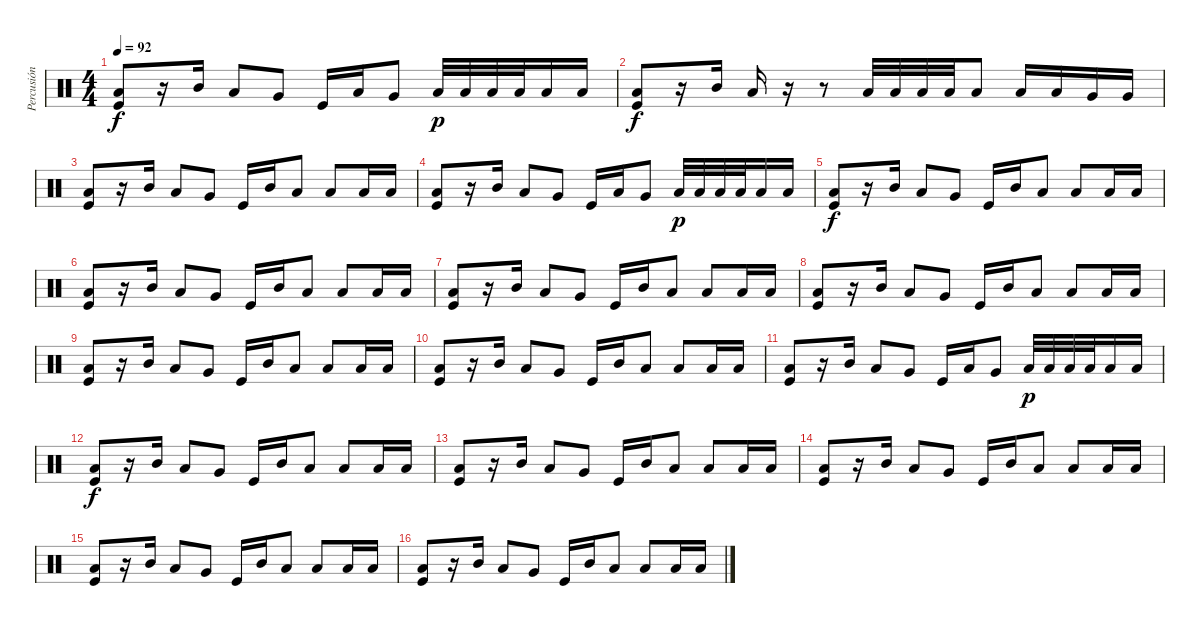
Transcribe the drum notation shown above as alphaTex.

\track ("Percusión" "Percusión") {instrument percussion}
\staff {score}
\articulation defaults
\ts (4 4)
\tempo 92
\clef neutral
\ks c
("Low Tom (hit)" "Kick (hit)").8{dy f} r.16 "Mid Tom (hit)".16 "Low Tom (hit)".8 "Very Low Tom (hit)".8 "Kick (hit)".16 "Low Tom (hit)".16 "Very Low Tom (hit)".8 "Low Floor Tom (hit)".32{dy p} "Low Floor Tom (hit)".32 "Low Floor Tom (hit)".32 "Low Floor Tom (hit)".32 "Low Floor Tom (hit)".16 "Low Floor Tom (hit)".16 |
("Low Tom (hit)" "Kick (hit)").8{dy f} r.16 "Mid Tom (hit)".16 "Low Tom (hit)".16 r.16 r.8 "Low Floor Tom (hit)".32 "Low Floor Tom (hit)".32 "Low Floor Tom (hit)".32 "Low Floor Tom (hit)".32 "Low Floor Tom (hit)".8 "Low Tom (hit)".16 "Low Tom (hit)".16 "Very Low Tom (hit)".16 "Very Low Tom (hit)".16 |
("Low Tom (hit)" "Kick (hit)").8 r.16 "Mid Tom (hit)".16 "Low Tom (hit)".8 "Very Low Tom (hit)".8 "Kick (hit)".16 "Mid Tom (hit)".16 "Low Tom (hit)".8 "Low Floor Tom (hit)".8 "Low Floor Tom (hit)".16 "Low Floor Tom (hit)".16 |
("Low Tom (hit)" "Kick (hit)").8 r.16 "Mid Tom (hit)".16 "Low Tom (hit)".8 "Very Low Tom (hit)".8 "Kick (hit)".16 "Low Tom (hit)".16 "Very Low Tom (hit)".8 "Low Floor Tom (hit)".32{dy p} "Low Floor Tom (hit)".32 "Low Floor Tom (hit)".32 "Low Floor Tom (hit)".32 "Low Floor Tom (hit)".16 "Low Floor Tom (hit)".16 |
("Low Tom (hit)" "Kick (hit)").8{dy f} r.16 "Mid Tom (hit)".16 "Low Tom (hit)".8 "Very Low Tom (hit)".8 "Kick (hit)".16 "Mid Tom (hit)".16 "Low Tom (hit)".8 "Low Floor Tom (hit)".8 "Low Floor Tom (hit)".16 "Low Floor Tom (hit)".16 |
("Low Tom (hit)" "Kick (hit)").8 r.16 "Mid Tom (hit)".16 "Low Tom (hit)".8 "Very Low Tom (hit)".8 "Kick (hit)".16 "Mid Tom (hit)".16 "Low Tom (hit)".8 "Low Floor Tom (hit)".8 "Low Floor Tom (hit)".16 "Low Floor Tom (hit)".16 |
("Low Tom (hit)" "Kick (hit)").8 r.16 "Mid Tom (hit)".16 "Low Tom (hit)".8 "Very Low Tom (hit)".8 "Kick (hit)".16 "Mid Tom (hit)".16 "Low Tom (hit)".8 "Low Floor Tom (hit)".8 "Low Floor Tom (hit)".16 "Low Floor Tom (hit)".16 |
("Low Tom (hit)" "Kick (hit)").8 r.16 "Mid Tom (hit)".16 "Low Tom (hit)".8 "Very Low Tom (hit)".8 "Kick (hit)".16 "Mid Tom (hit)".16 "Low Tom (hit)".8 "Low Floor Tom (hit)".8 "Low Floor Tom (hit)".16 "Low Floor Tom (hit)".16 |
("Low Tom (hit)" "Kick (hit)").8 r.16 "Mid Tom (hit)".16 "Low Tom (hit)".8 "Very Low Tom (hit)".8 "Kick (hit)".16 "Mid Tom (hit)".16 "Low Tom (hit)".8 "Low Floor Tom (hit)".8 "Low Floor Tom (hit)".16 "Low Floor Tom (hit)".16 |
("Low Tom (hit)" "Kick (hit)").8 r.16 "Mid Tom (hit)".16 "Low Tom (hit)".8 "Very Low Tom (hit)".8 "Kick (hit)".16 "Mid Tom (hit)".16 "Low Tom (hit)".8 "Low Floor Tom (hit)".8 "Low Floor Tom (hit)".16 "Low Floor Tom (hit)".16 |
("Low Tom (hit)" "Kick (hit)").8 r.16 "Mid Tom (hit)".16 "Low Tom (hit)".8 "Very Low Tom (hit)".8 "Kick (hit)".16 "Low Tom (hit)".16 "Very Low Tom (hit)".8 "Low Floor Tom (hit)".32{dy p} "Low Floor Tom (hit)".32 "Low Floor Tom (hit)".32 "Low Floor Tom (hit)".32 "Low Floor Tom (hit)".16 "Low Floor Tom (hit)".16 |
("Low Tom (hit)" "Kick (hit)").8{dy f} r.16 "Mid Tom (hit)".16 "Low Tom (hit)".8 "Very Low Tom (hit)".8 "Kick (hit)".16 "Mid Tom (hit)".16 "Low Tom (hit)".8 "Low Floor Tom (hit)".8 "Low Floor Tom (hit)".16 "Low Floor Tom (hit)".16 |
("Low Tom (hit)" "Kick (hit)").8 r.16 "Mid Tom (hit)".16 "Low Tom (hit)".8 "Very Low Tom (hit)".8 "Kick (hit)".16 "Mid Tom (hit)".16 "Low Tom (hit)".8 "Low Floor Tom (hit)".8 "Low Floor Tom (hit)".16 "Low Floor Tom (hit)".16 |
("Low Tom (hit)" "Kick (hit)").8 r.16 "Mid Tom (hit)".16 "Low Tom (hit)".8 "Very Low Tom (hit)".8 "Kick (hit)".16 "Mid Tom (hit)".16 "Low Tom (hit)".8 "Low Floor Tom (hit)".8 "Low Floor Tom (hit)".16 "Low Floor Tom (hit)".16 |
("Low Tom (hit)" "Kick (hit)").8 r.16 "Mid Tom (hit)".16 "Low Tom (hit)".8 "Very Low Tom (hit)".8 "Kick (hit)".16 "Mid Tom (hit)".16 "Low Tom (hit)".8 "Low Floor Tom (hit)".8 "Low Floor Tom (hit)".16 "Low Floor Tom (hit)".16 |
("Low Tom (hit)" "Kick (hit)").8 r.16 "Mid Tom (hit)".16 "Low Tom (hit)".8 "Very Low Tom (hit)".8 "Kick (hit)".16 "Mid Tom (hit)".16 "Low Tom (hit)".8 "Low Floor Tom (hit)".8 "Low Floor Tom (hit)".16 "Low Floor Tom (hit)".16
